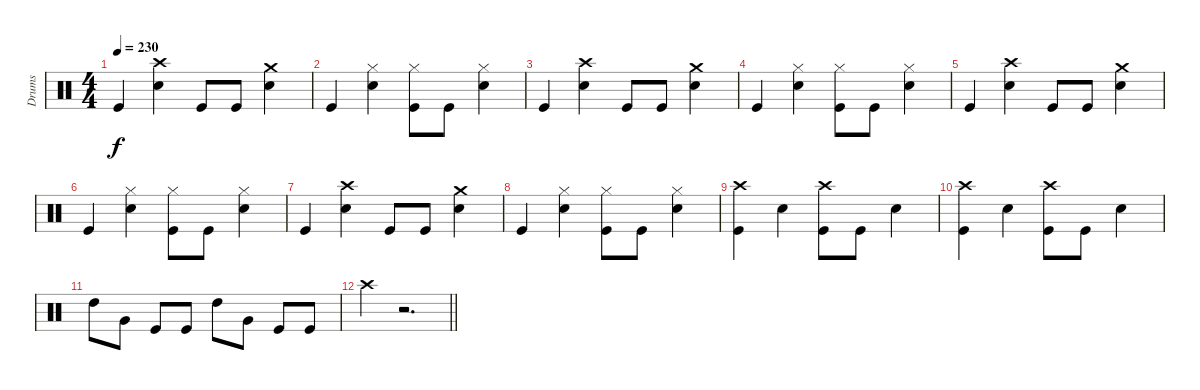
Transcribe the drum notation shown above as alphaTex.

\track ("Drums" "Drums") {instrument percussion}
\staff {score}
\articulation defaults
\ts (4 4)
\tempo 230
\clef neutral
\ks c "Kick (hit)".4{dy f}
("Crash high (hit)" "Snare (hit) 2").4 "Kick (hit)".8 "Kick (hit)".8 ("Crash medium (hit)" "Snare (hit) 2").4 |
"Kick (hit)".4 ("Hi-Hat (closed)" "Snare (hit) 2").4 ("Hi-Hat (closed)" "Kick (hit)").8 "Kick (hit)".8 ("Hi-Hat (closed)" "Snare (hit) 2").4 |
"Kick (hit)".4 ("Crash high (hit)" "Snare (hit) 2").4 "Kick (hit)".8 "Kick (hit)".8 ("Crash medium (hit)" "Snare (hit) 2").4 |
"Kick (hit)".4 ("Hi-Hat (closed)" "Snare (hit) 2").4 ("Hi-Hat (closed)" "Kick (hit)").8 "Kick (hit)".8 ("Hi-Hat (closed)" "Snare (hit) 2").4 |
"Kick (hit)".4 ("Crash high (hit)" "Snare (hit) 2").4 "Kick (hit)".8 "Kick (hit)".8 ("Crash medium (hit)" "Snare (hit) 2").4 |
"Kick (hit)".4 ("Hi-Hat (closed)" "Snare (hit) 2").4 ("Hi-Hat (closed)" "Kick (hit)").8 "Kick (hit)".8 ("Hi-Hat (closed)" "Snare (hit) 2").4 |
"Kick (hit)".4 ("Crash high (hit)" "Snare (hit) 2").4 "Kick (hit)".8 "Kick (hit)".8 ("Crash medium (hit)" "Snare (hit) 2").4 |
"Kick (hit)".4 ("Hi-Hat (closed)" "Snare (hit) 2").4 ("Hi-Hat (closed)" "Kick (hit)").8 "Kick (hit)".8 ("Hi-Hat (closed)" "Snare (hit) 2").4 |
("Crash high (hit)" "Kick (hit)").4 "Snare (hit) 2".4 ("Crash high (hit)" "Kick (hit)").8 "Kick (hit)".8 "Snare (hit) 2".4 |
("Crash high (hit)" "Kick (hit)").4 "Snare (hit) 2".4 ("Crash high (hit)" "Kick (hit)").8 "Kick (hit)".8 "Snare (hit) 2".4 |
"High Tom (hit)".8 "Very Low Tom (hit)".8 "Kick (hit)".8 "Kick (hit)".8 "High Tom (hit)".8 "Very Low Tom (hit)".8 "Kick (hit)".8 "Kick (hit)".8 |
\barLineRight lightlight "Crash high (hit)".4
r.2{d}
